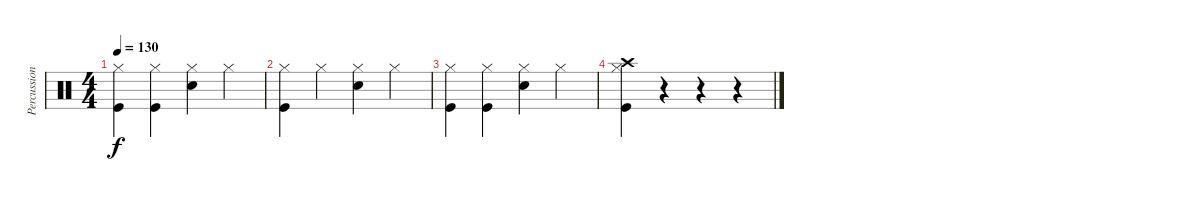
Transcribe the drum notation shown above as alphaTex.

\track ("Percussion" "Percussion") {instrument percussion}
\staff {score}
\articulation defaults
\ts (4 4)
\tempo 130
\clef neutral
\ks c
("Hi-Hat (closed)" "Kick (hit)").4{dy f} ("Hi-Hat (closed)" "Kick (hit)").4 ("Hi-Hat (closed)" "Snare (hit) 2").4 "Hi-Hat (closed)".4 |
("Hi-Hat (closed)" "Kick (hit)").4 "Hi-Hat (closed)".4 ("Hi-Hat (closed)" "Snare (hit) 2").4 "Hi-Hat (closed)".4 |
("Hi-Hat (closed)" "Kick (hit)").4 ("Hi-Hat (closed)" "Kick (hit)").4 ("Hi-Hat (closed)" "Snare (hit) 2").4 "Hi-Hat (closed)".4 |
("Hi-Hat (closed)" "Crash high (hit)" "Kick (hit)").4 r.4 r.4 r.4
